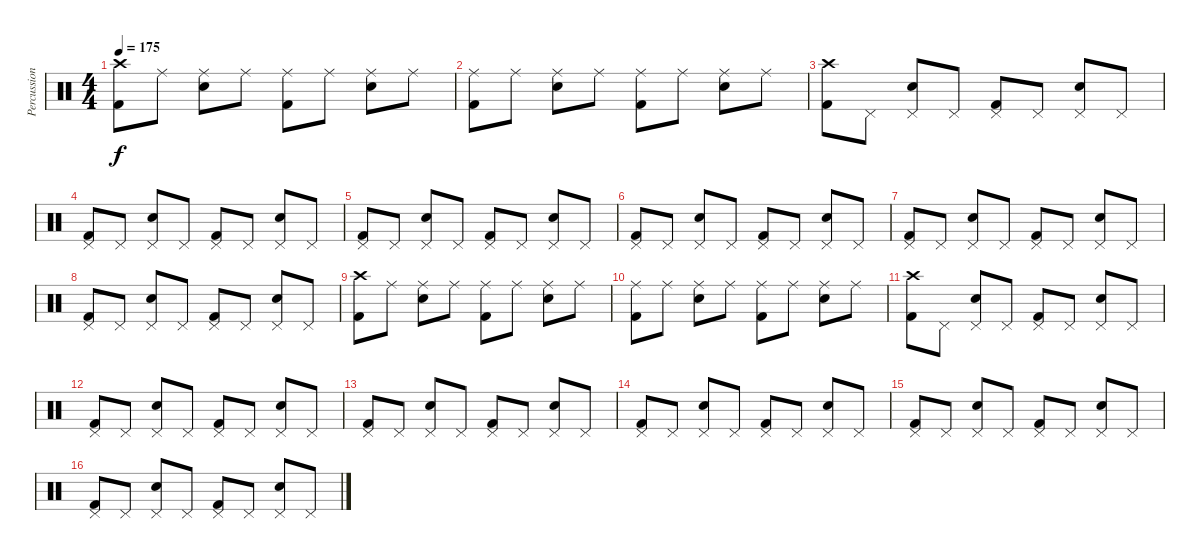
\track ("Percussions" "Percussion") {instrument percussion}
\staff {score}
\articulation defaults
\ts (4 4)
\tempo 175
\clef neutral
\ks c
("Crash high (hit)" "Kick (hit) 2").8{dy f} "Ride (middle)".8 ("Ride (middle)" "Snare (hit) 2").8 "Ride (middle)".8 ("Ride (middle)" "Kick (hit) 2").8 "Ride (middle)".8 ("Ride (middle)" "Snare (hit) 2").8 "Ride (middle)".8 |
("Ride (middle)" "Kick (hit) 2").8 "Ride (middle)".8 ("Ride (middle)" "Snare (hit) 2").8 "Ride (middle)".8 ("Ride (middle)" "Kick (hit) 2").8 "Ride (middle)".8 ("Ride (middle)" "Snare (hit) 2").8 "Ride (middle)".8 |
("Crash high (hit)" "Kick (hit) 2").8 "Pedal Hi-Hat (hit)".8 ("Pedal Hi-Hat (hit)" "Snare (hit) 2").8 "Pedal Hi-Hat (hit)".8 ("Pedal Hi-Hat (hit)" "Kick (hit) 2").8 "Pedal Hi-Hat (hit)".8 ("Pedal Hi-Hat (hit)" "Snare (hit) 2").8 "Pedal Hi-Hat (hit)".8 |
("Pedal Hi-Hat (hit)" "Kick (hit) 2").8 "Pedal Hi-Hat (hit)".8 ("Pedal Hi-Hat (hit)" "Snare (hit) 2").8 "Pedal Hi-Hat (hit)".8 ("Pedal Hi-Hat (hit)" "Kick (hit) 2").8 "Pedal Hi-Hat (hit)".8 ("Pedal Hi-Hat (hit)" "Snare (hit) 2").8 "Pedal Hi-Hat (hit)".8 |
("Pedal Hi-Hat (hit)" "Kick (hit) 2").8 "Pedal Hi-Hat (hit)".8 ("Pedal Hi-Hat (hit)" "Snare (hit) 2").8 "Pedal Hi-Hat (hit)".8 ("Pedal Hi-Hat (hit)" "Kick (hit) 2").8 "Pedal Hi-Hat (hit)".8 ("Pedal Hi-Hat (hit)" "Snare (hit) 2").8 "Pedal Hi-Hat (hit)".8 |
("Pedal Hi-Hat (hit)" "Kick (hit) 2").8 "Pedal Hi-Hat (hit)".8 ("Pedal Hi-Hat (hit)" "Snare (hit) 2").8 "Pedal Hi-Hat (hit)".8 ("Pedal Hi-Hat (hit)" "Kick (hit) 2").8 "Pedal Hi-Hat (hit)".8 ("Pedal Hi-Hat (hit)" "Snare (hit) 2").8 "Pedal Hi-Hat (hit)".8 |
("Pedal Hi-Hat (hit)" "Kick (hit) 2").8 "Pedal Hi-Hat (hit)".8 ("Pedal Hi-Hat (hit)" "Snare (hit) 2").8 "Pedal Hi-Hat (hit)".8 ("Pedal Hi-Hat (hit)" "Kick (hit) 2").8 "Pedal Hi-Hat (hit)".8 ("Pedal Hi-Hat (hit)" "Snare (hit) 2").8 "Pedal Hi-Hat (hit)".8 |
("Pedal Hi-Hat (hit)" "Kick (hit) 2").8 "Pedal Hi-Hat (hit)".8 ("Pedal Hi-Hat (hit)" "Snare (hit) 2").8 "Pedal Hi-Hat (hit)".8 ("Pedal Hi-Hat (hit)" "Kick (hit) 2").8 "Pedal Hi-Hat (hit)".8 ("Pedal Hi-Hat (hit)" "Snare (hit) 2").8 "Pedal Hi-Hat (hit)".8 |
("Crash high (hit)" "Kick (hit) 2").8 "Ride (middle)".8 ("Ride (middle)" "Snare (hit) 2").8 "Ride (middle)".8 ("Ride (middle)" "Kick (hit) 2").8 "Ride (middle)".8 ("Ride (middle)" "Snare (hit) 2").8 "Ride (middle)".8 |
("Ride (middle)" "Kick (hit) 2").8 "Ride (middle)".8 ("Ride (middle)" "Snare (hit) 2").8 "Ride (middle)".8 ("Ride (middle)" "Kick (hit) 2").8 "Ride (middle)".8 ("Ride (middle)" "Snare (hit) 2").8 "Ride (middle)".8 |
("Crash high (hit)" "Kick (hit) 2").8 "Pedal Hi-Hat (hit)".8 ("Pedal Hi-Hat (hit)" "Snare (hit) 2").8 "Pedal Hi-Hat (hit)".8 ("Pedal Hi-Hat (hit)" "Kick (hit) 2").8 "Pedal Hi-Hat (hit)".8 ("Pedal Hi-Hat (hit)" "Snare (hit) 2").8 "Pedal Hi-Hat (hit)".8 |
("Pedal Hi-Hat (hit)" "Kick (hit) 2").8 "Pedal Hi-Hat (hit)".8 ("Pedal Hi-Hat (hit)" "Snare (hit) 2").8 "Pedal Hi-Hat (hit)".8 ("Pedal Hi-Hat (hit)" "Kick (hit) 2").8 "Pedal Hi-Hat (hit)".8 ("Pedal Hi-Hat (hit)" "Snare (hit) 2").8 "Pedal Hi-Hat (hit)".8 |
("Pedal Hi-Hat (hit)" "Kick (hit) 2").8 "Pedal Hi-Hat (hit)".8 ("Pedal Hi-Hat (hit)" "Snare (hit) 2").8 "Pedal Hi-Hat (hit)".8 ("Pedal Hi-Hat (hit)" "Kick (hit) 2").8 "Pedal Hi-Hat (hit)".8 ("Pedal Hi-Hat (hit)" "Snare (hit) 2").8 "Pedal Hi-Hat (hit)".8 |
("Pedal Hi-Hat (hit)" "Kick (hit) 2").8 "Pedal Hi-Hat (hit)".8 ("Pedal Hi-Hat (hit)" "Snare (hit) 2").8 "Pedal Hi-Hat (hit)".8 ("Pedal Hi-Hat (hit)" "Kick (hit) 2").8 "Pedal Hi-Hat (hit)".8 ("Pedal Hi-Hat (hit)" "Snare (hit) 2").8 "Pedal Hi-Hat (hit)".8 |
("Pedal Hi-Hat (hit)" "Kick (hit) 2").8 "Pedal Hi-Hat (hit)".8 ("Pedal Hi-Hat (hit)" "Snare (hit) 2").8 "Pedal Hi-Hat (hit)".8 ("Pedal Hi-Hat (hit)" "Kick (hit) 2").8 "Pedal Hi-Hat (hit)".8 ("Pedal Hi-Hat (hit)" "Snare (hit) 2").8 "Pedal Hi-Hat (hit)".8 |
("Pedal Hi-Hat (hit)" "Kick (hit) 2").8 "Pedal Hi-Hat (hit)".8 ("Pedal Hi-Hat (hit)" "Snare (hit) 2").8 "Pedal Hi-Hat (hit)".8 ("Pedal Hi-Hat (hit)" "Kick (hit) 2").8 "Pedal Hi-Hat (hit)".8 ("Pedal Hi-Hat (hit)" "Snare (hit) 2").8 "Pedal Hi-Hat (hit)".8
